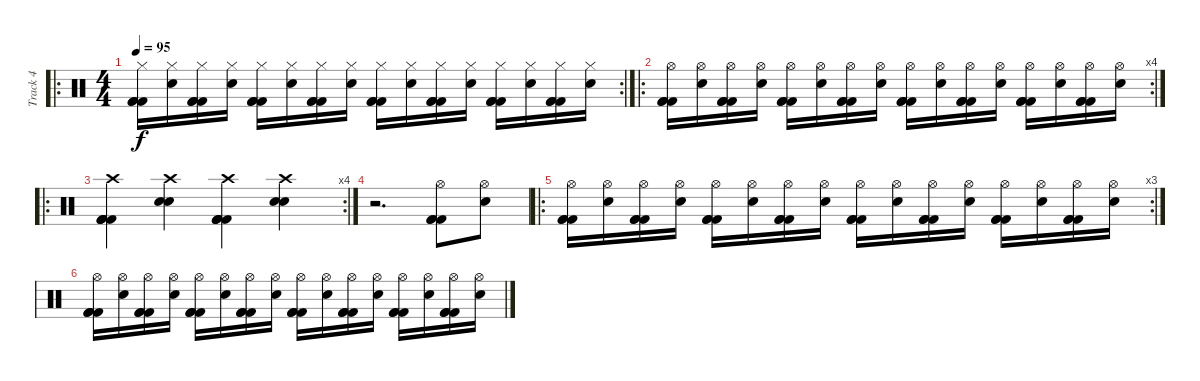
\track ("Track 4" "Track 4") {instrument percussion}
\staff {score}
\articulation defaults
\ro
\rc 2
\ts (4 4)
\tempo 95
\clef neutral
\ks c
("Hi-Hat (closed)" "Kick (hit) 2" "Kick (hit) 2" "Kick (hit) 2").16{dy f} ("Hi-Hat (closed)" "Snare (hit) 2").16 ("Hi-Hat (closed)" "Kick (hit) 2" "Kick (hit) 2" "Kick (hit) 2").16 ("Hi-Hat (closed)" "Snare (hit) 2").16 ("Hi-Hat (closed)" "Kick (hit) 2" "Kick (hit) 2" "Kick (hit) 2").16 ("Hi-Hat (closed)" "Snare (hit) 2").16 ("Hi-Hat (closed)" "Kick (hit) 2" "Kick (hit) 2" "Kick (hit) 2").16 ("Hi-Hat (closed)" "Snare (hit) 2").16 ("Hi-Hat (closed)" "Kick (hit) 2" "Kick (hit) 2" "Kick (hit) 2").16 ("Hi-Hat (closed)" "Snare (hit) 2").16 ("Hi-Hat (closed)" "Kick (hit) 2" "Kick (hit) 2" "Kick (hit) 2").16 ("Hi-Hat (closed)" "Snare (hit) 2").16 ("Hi-Hat (closed)" "Kick (hit) 2" "Kick (hit) 2" "Kick (hit) 2").16 ("Hi-Hat (closed)" "Snare (hit) 2").16 ("Hi-Hat (closed)" "Kick (hit) 2" "Kick (hit) 2" "Kick (hit) 2").16 ("Hi-Hat (closed)" "Snare (hit) 2").16 |
\ro
\rc 4
("Hi-Hat (open)" "Kick (hit) 2" "Kick (hit) 2" "Kick (hit) 2").16 ("Hi-Hat (open)" "Snare (hit) 2").16 ("Hi-Hat (open)" "Kick (hit) 2" "Kick (hit) 2" "Kick (hit) 2").16 ("Hi-Hat (open)" "Snare (hit) 2").16 ("Hi-Hat (open)" "Kick (hit) 2" "Kick (hit) 2" "Kick (hit) 2").16 ("Hi-Hat (open)" "Snare (hit) 2").16 ("Hi-Hat (open)" "Kick (hit) 2" "Kick (hit) 2" "Kick (hit) 2").16 ("Hi-Hat (open)" "Snare (hit) 2").16 ("Hi-Hat (open)" "Kick (hit) 2" "Kick (hit) 2" "Kick (hit) 2").16 ("Hi-Hat (open)" "Snare (hit) 2").16 ("Hi-Hat (open)" "Kick (hit) 2" "Kick (hit) 2" "Kick (hit) 2").16 ("Hi-Hat (open)" "Snare (hit) 2").16 ("Hi-Hat (open)" "Kick (hit) 2" "Kick (hit) 2" "Kick (hit) 2").16 ("Hi-Hat (open)" "Snare (hit) 2").16 ("Hi-Hat (open)" "Kick (hit) 2" "Kick (hit) 2" "Kick (hit) 2").16 ("Hi-Hat (open)" "Snare (hit) 2").16 |
\ro
\rc 4
("Crash high (hit)" "Kick (hit) 2" "Kick (hit) 2" "Kick (hit) 2" "Kick (hit) 2").4 ("Crash high (hit)" "Snare (hit) 2" "Snare (hit) 2").4 ("Crash high (hit)" "Kick (hit) 2" "Kick (hit) 2" "Kick (hit) 2" "Kick (hit) 2").4 ("Crash high (hit)" "Snare (hit) 2" "Snare (hit) 2").4 |
r.2{d} ("Hi-Hat (open)" "Kick (hit) 2" "Kick (hit) 2" "Kick (hit) 2").8 ("Hi-Hat (open)" "Snare (hit) 2").8 |
\ro
\rc 3
("Hi-Hat (open)" "Kick (hit) 2" "Kick (hit) 2" "Kick (hit) 2").16 ("Hi-Hat (open)" "Snare (hit) 2").16 ("Hi-Hat (open)" "Kick (hit) 2" "Kick (hit) 2" "Kick (hit) 2").16 ("Hi-Hat (open)" "Snare (hit) 2").16 ("Hi-Hat (open)" "Kick (hit) 2" "Kick (hit) 2" "Kick (hit) 2").16 ("Hi-Hat (open)" "Snare (hit) 2").16 ("Hi-Hat (open)" "Kick (hit) 2" "Kick (hit) 2" "Kick (hit) 2").16 ("Hi-Hat (open)" "Snare (hit) 2").16 ("Hi-Hat (open)" "Kick (hit) 2" "Kick (hit) 2" "Kick (hit) 2").16 ("Hi-Hat (open)" "Snare (hit) 2").16 ("Hi-Hat (open)" "Kick (hit) 2" "Kick (hit) 2" "Kick (hit) 2").16 ("Hi-Hat (open)" "Snare (hit) 2").16 ("Hi-Hat (open)" "Kick (hit) 2" "Kick (hit) 2" "Kick (hit) 2").16 ("Hi-Hat (open)" "Snare (hit) 2").16 ("Hi-Hat (open)" "Kick (hit) 2" "Kick (hit) 2" "Kick (hit) 2").16 ("Hi-Hat (open)" "Snare (hit) 2").16 |
("Hi-Hat (open)" "Kick (hit) 2" "Kick (hit) 2" "Kick (hit) 2").16 ("Hi-Hat (open)" "Snare (hit) 2").16 ("Hi-Hat (open)" "Kick (hit) 2" "Kick (hit) 2" "Kick (hit) 2").16 ("Hi-Hat (open)" "Snare (hit) 2").16 ("Hi-Hat (open)" "Kick (hit) 2" "Kick (hit) 2" "Kick (hit) 2").16 ("Hi-Hat (open)" "Snare (hit) 2").16 ("Hi-Hat (open)" "Kick (hit) 2" "Kick (hit) 2" "Kick (hit) 2").16 ("Hi-Hat (open)" "Snare (hit) 2").16 ("Hi-Hat (open)" "Kick (hit) 2" "Kick (hit) 2" "Kick (hit) 2").16 ("Hi-Hat (open)" "Snare (hit) 2").16 ("Hi-Hat (open)" "Kick (hit) 2" "Kick (hit) 2" "Kick (hit) 2").16 ("Hi-Hat (open)" "Snare (hit) 2").16 ("Hi-Hat (open)" "Kick (hit) 2" "Kick (hit) 2" "Kick (hit) 2").16 ("Hi-Hat (open)" "Snare (hit) 2").16 ("Hi-Hat (open)" "Kick (hit) 2" "Kick (hit) 2" "Kick (hit) 2").16 ("Hi-Hat (open)" "Snare (hit) 2").16
